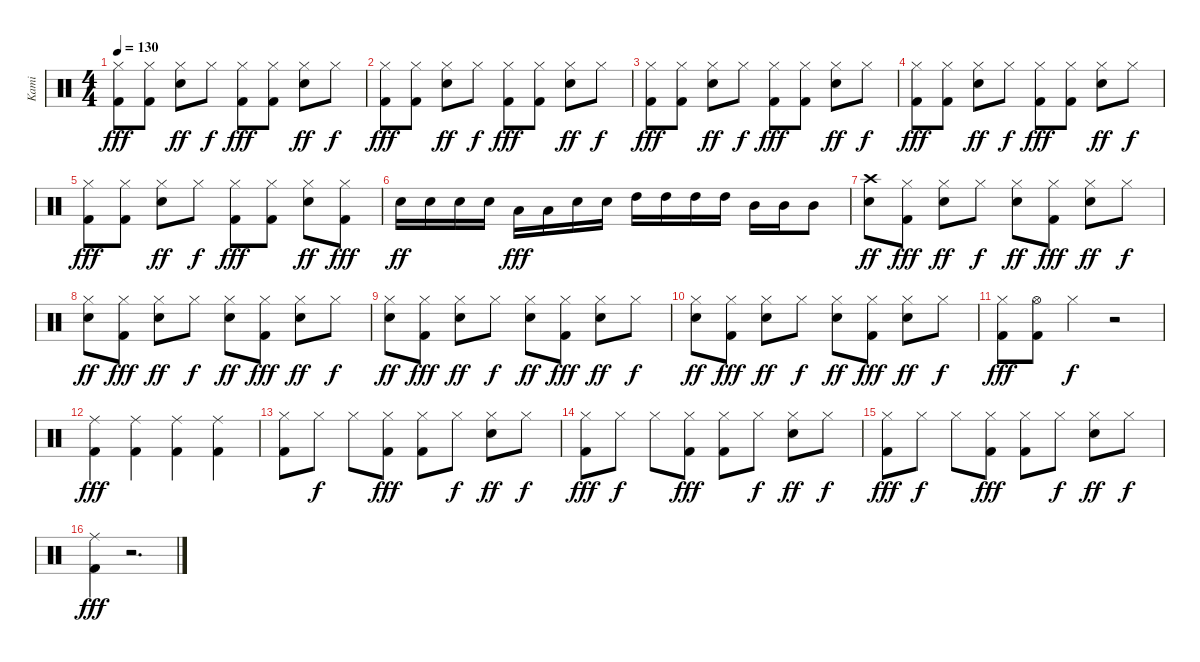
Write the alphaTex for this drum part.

\track ("Kami" "Kami") {instrument percussion}
\staff {score}
\articulation defaults
\ts (4 4)
\tempo 130
\clef neutral
\ks c
("Hi-Hat (closed)" "Kick (hit) 2").8{dy fff} ("Hi-Hat (closed)" "Kick (hit) 2").8 ("Hi-Hat (closed)" "Snare (hit) 2").8{dy ff} "Hi-Hat (closed)".8{dy f} ("Hi-Hat (closed)" "Kick (hit) 2").8{dy fff} ("Hi-Hat (closed)" "Kick (hit) 2").8 ("Hi-Hat (closed)" "Snare (hit) 2").8{dy ff} "Hi-Hat (closed)".8{dy f} |
("Hi-Hat (closed)" "Kick (hit) 2").8{dy fff} ("Hi-Hat (closed)" "Kick (hit) 2").8 ("Hi-Hat (closed)" "Snare (hit) 2").8{dy ff} "Hi-Hat (closed)".8{dy f} ("Hi-Hat (closed)" "Kick (hit) 2").8{dy fff} ("Hi-Hat (closed)" "Kick (hit) 2").8 ("Hi-Hat (closed)" "Snare (hit) 2").8{dy ff} "Hi-Hat (closed)".8{dy f} |
("Hi-Hat (closed)" "Kick (hit) 2").8{dy fff} ("Hi-Hat (closed)" "Kick (hit) 2").8 ("Hi-Hat (closed)" "Snare (hit) 2").8{dy ff} "Hi-Hat (closed)".8{dy f} ("Hi-Hat (closed)" "Kick (hit) 2").8{dy fff} ("Hi-Hat (closed)" "Kick (hit) 2").8 ("Hi-Hat (closed)" "Snare (hit) 2").8{dy ff} "Hi-Hat (closed)".8{dy f} |
("Hi-Hat (closed)" "Kick (hit) 2").8{dy fff} ("Hi-Hat (closed)" "Kick (hit) 2").8 ("Hi-Hat (closed)" "Snare (hit) 2").8{dy ff} "Hi-Hat (closed)".8{dy f} ("Hi-Hat (closed)" "Kick (hit) 2").8{dy fff} ("Hi-Hat (closed)" "Kick (hit) 2").8 ("Hi-Hat (closed)" "Snare (hit) 2").8{dy ff} "Hi-Hat (closed)".8{dy f} |
("Hi-Hat (closed)" "Kick (hit) 2").8{dy fff} ("Hi-Hat (closed)" "Kick (hit) 2").8 ("Hi-Hat (closed)" "Snare (hit) 2").8{dy ff} "Hi-Hat (closed)".8{dy f} ("Hi-Hat (closed)" "Kick (hit) 2").8{dy fff} ("Hi-Hat (closed)" "Kick (hit) 2").8 ("Hi-Hat (closed)" "Snare (hit) 2").8{dy ff} ("Hi-Hat (closed)" "Kick (hit) 2").8{dy fff} |
"Snare (hit) 2".16{dy ff} "Snare (hit) 2".16 "Snare (hit) 2".16 "Snare (hit) 2".16 "Low Tom (hit)".16{dy fff} "Low Tom (hit)".16 "Snare (hit) 2".16 "Snare (hit) 2".16 "High Tom (hit)".16 "High Tom (hit)".16 "High Tom (hit)".16 "High Tom (hit)".16 "Mid Tom (hit)".16 "Mid Tom (hit)".16 "Mid Tom (hit)".8 |
("Crash high (hit)" "Snare (hit) 2").8{dy ff} ("Hi-Hat (closed)" "Kick (hit) 2").8{dy fff} ("Hi-Hat (closed)" "Snare (hit) 2").8{dy ff} "Hi-Hat (closed)".8{dy f} ("Hi-Hat (closed)" "Snare (hit) 2").8{dy ff} ("Hi-Hat (closed)" "Kick (hit) 2").8{dy fff} ("Hi-Hat (closed)" "Snare (hit) 2").8{dy ff} "Hi-Hat (closed)".8{dy f} |
("Hi-Hat (closed)" "Snare (hit) 2").8{dy ff} ("Hi-Hat (closed)" "Kick (hit) 2").8{dy fff} ("Hi-Hat (closed)" "Snare (hit) 2").8{dy ff} "Hi-Hat (closed)".8{dy f} ("Hi-Hat (closed)" "Snare (hit) 2").8{dy ff} ("Hi-Hat (closed)" "Kick (hit) 2").8{dy fff} ("Hi-Hat (closed)" "Snare (hit) 2").8{dy ff} "Hi-Hat (closed)".8{dy f} |
("Hi-Hat (closed)" "Snare (hit) 2").8{dy ff} ("Hi-Hat (closed)" "Kick (hit) 2").8{dy fff} ("Hi-Hat (closed)" "Snare (hit) 2").8{dy ff} "Hi-Hat (closed)".8{dy f} ("Hi-Hat (closed)" "Snare (hit) 2").8{dy ff} ("Hi-Hat (closed)" "Kick (hit) 2").8{dy fff} ("Hi-Hat (closed)" "Snare (hit) 2").8{dy ff} "Hi-Hat (closed)".8{dy f} |
("Hi-Hat (closed)" "Snare (hit) 2").8{dy ff} ("Hi-Hat (closed)" "Kick (hit) 2").8{dy fff} ("Hi-Hat (closed)" "Snare (hit) 2").8{dy ff} "Hi-Hat (closed)".8{dy f} ("Hi-Hat (closed)" "Snare (hit) 2").8{dy ff} ("Hi-Hat (closed)" "Kick (hit) 2").8{dy fff} ("Hi-Hat (closed)" "Snare (hit) 2").8{dy ff} "Hi-Hat (closed)".8{dy f} |
("Hi-Hat (closed)" "Kick (hit) 2").8{dy fff} ("Hi-Hat (open)" "Kick (hit) 2").8 "Hi-Hat (closed)".4{dy f} r.2 |
("Ride (middle)" "Kick (hit) 2").4{dy fff} ("Ride (middle)" "Kick (hit) 2").4 ("Ride (middle)" "Kick (hit) 2").4 ("Ride (middle)" "Kick (hit) 2").4 |
("Hi-Hat (closed)" "Kick (hit) 2").8 "Hi-Hat (closed)".8{dy f} "Hi-Hat (closed)".8 ("Hi-Hat (closed)" "Kick (hit) 2").8{dy fff} ("Hi-Hat (closed)" "Kick (hit) 2").8 "Hi-Hat (closed)".8{dy f} ("Hi-Hat (closed)" "Snare (hit) 2").8{dy ff} "Hi-Hat (closed)".8{dy f} |
("Hi-Hat (closed)" "Kick (hit) 2").8{dy fff} "Hi-Hat (closed)".8{dy f} "Hi-Hat (closed)".8 ("Hi-Hat (closed)" "Kick (hit) 2").8{dy fff} ("Hi-Hat (closed)" "Kick (hit) 2").8 "Hi-Hat (closed)".8{dy f} ("Hi-Hat (closed)" "Snare (hit) 2").8{dy ff} "Hi-Hat (closed)".8{dy f} |
("Hi-Hat (closed)" "Kick (hit) 2").8{dy fff} "Hi-Hat (closed)".8{dy f} "Hi-Hat (closed)".8 ("Hi-Hat (closed)" "Kick (hit) 2").8{dy fff} ("Hi-Hat (closed)" "Kick (hit) 2").8 "Hi-Hat (closed)".8{dy f} ("Hi-Hat (closed)" "Snare (hit) 2").8{dy ff} "Hi-Hat (closed)".8{dy f} |
("Ride (middle)" "Kick (hit) 2").4{dy fff} r.2{d}
